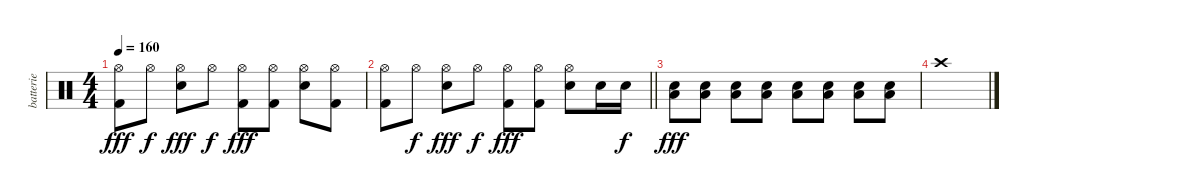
\track ("batterie" "batterie") {instrument percussion}
\staff {score}
\articulation defaults
\ts (4 4)
\tempo 160
\clef neutral
\ks c
("Hi-Hat (open)" "Kick (hit) 2").8{dy fff} "Hi-Hat (open)".8{dy f} ("Hi-Hat (open)" "Electric Snare (hit)").8{dy fff} "Hi-Hat (open)".8{dy f} ("Hi-Hat (open)" "Kick (hit) 2").8{dy fff} ("Hi-Hat (open)" "Kick (hit) 2").8 ("Hi-Hat (open)" "Electric Snare (hit)").8 ("Hi-Hat (open)" "Kick (hit) 2").8 |
\barLineRight lightlight
("Hi-Hat (open)" "Kick (hit) 2").8 "Hi-Hat (open)".8{dy f} ("Hi-Hat (open)" "Electric Snare (hit)").8{dy fff} "Hi-Hat (open)".8{dy f} ("Hi-Hat (open)" "Kick (hit) 2").8{dy fff} ("Hi-Hat (open)" "Kick (hit) 2").8 ("Hi-Hat (open)" "Electric Snare (hit)").8 "Electric Snare (hit)".16 "Electric Snare (hit)".16{dy f} |
("Low Floor Tom (hit)" "Electric Snare (hit)").8{dy fff} ("Low Floor Tom (hit)" "Electric Snare (hit)").8 ("Low Floor Tom (hit)" "Electric Snare (hit)").8 ("Low Floor Tom (hit)" "Electric Snare (hit)").8 ("Low Floor Tom (hit)" "Electric Snare (hit)").8 ("Low Floor Tom (hit)" "Electric Snare (hit)").8 ("Low Floor Tom (hit)" "Electric Snare (hit)").8 ("Low Floor Tom (hit)" "Electric Snare (hit)").8 |
"Crash high (hit)".1
